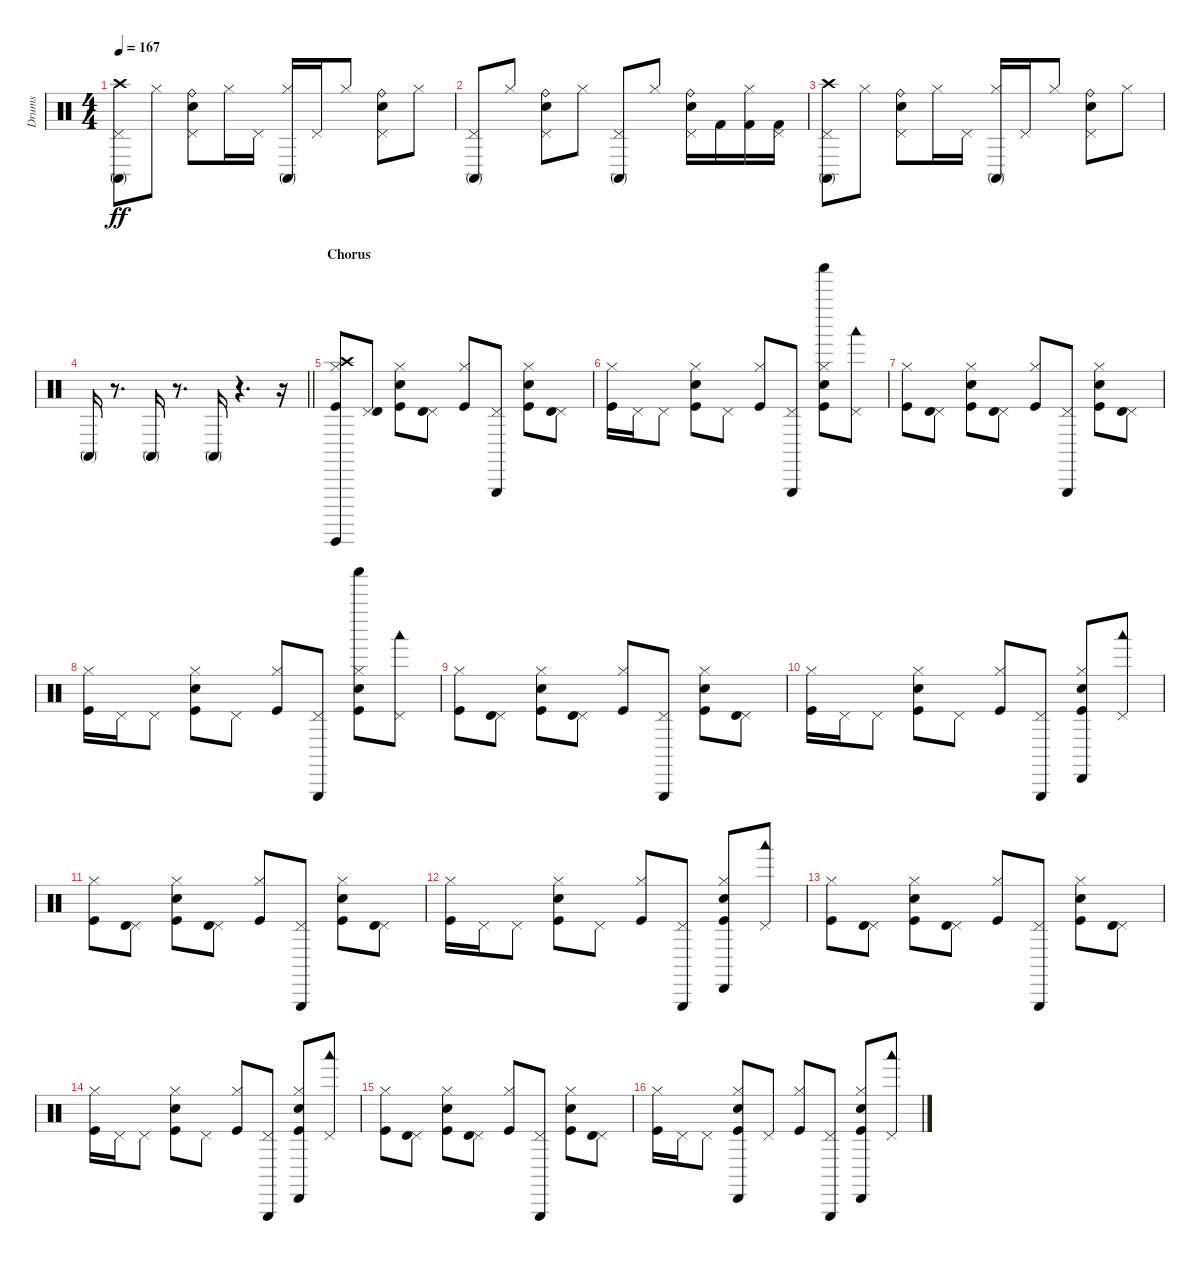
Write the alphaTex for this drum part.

\track ("Drums" "Drums") {instrument percussion}
\staff {score}
\articulation defaults
\ts (4 4)
\tempo 167
\clef neutral
\ks c
("Pedal Hi-Hat (hit)" "Conga high (mute)" "Crash high (hit)").8{dy ff} "Hi-Hat (closed)".8 ("Ride (bell)" "Pedal Hi-Hat (hit)" "Snare (hit) 2").8 "Hi-Hat (closed)".16 "Pedal Hi-Hat (hit)".16 ("Hi-Hat (closed)" "Conga high (mute)").16 "Pedal Hi-Hat (hit)".16 "Hi-Hat (closed)".8 ("Ride (bell)" "Pedal Hi-Hat (hit)" "Snare (hit) 2").8 "Hi-Hat (closed)".8 |
("Pedal Hi-Hat (hit)" "Conga high (mute)").8 "Hi-Hat (closed)".8 ("Ride (bell)" "Pedal Hi-Hat (hit)" "Snare (hit) 2").8 "Hi-Hat (closed)".8 ("Pedal Hi-Hat (hit)" "Conga high (mute)").8 "Hi-Hat (closed)".8 ("Ride (bell)" "Pedal Hi-Hat (hit)" "Snare (hit) 2").16 "Kick (hit) 2".16 ("Kick (hit) 2" "Hi-Hat (closed)").16 ("Kick (hit) 2" "Pedal Hi-Hat (hit)").16 |
("Pedal Hi-Hat (hit)" "Conga high (mute)" "Crash high (hit)").8 "Hi-Hat (closed)".8 ("Ride (bell)" "Pedal Hi-Hat (hit)" "Snare (hit) 2").8 "Hi-Hat (closed)".16 "Pedal Hi-Hat (hit)".16 ("Hi-Hat (closed)" "Conga high (mute)").16 "Pedal Hi-Hat (hit)".16 "Hi-Hat (closed)".8 ("Ride (bell)" "Pedal Hi-Hat (hit)" "Snare (hit) 2").8 "Hi-Hat (closed)".8 |
\barLineRight lightlight "Conga high (mute)".16
r.8{d} "Conga high (mute)".16 r.8{d} "Conga high (mute)".16 r.4{d} r.16 |
\section ("" "Chorus")
("Kick (hit)" "Hi-Hat (closed)" "Crash high (hit)" "Guiro (hit)").8 ("Pedal Hi-Hat (hit)" "Timbale high (hit)").8 ("Kick (hit)" "Hi-Hat (closed)" "Snare (hit) 2").8 ("Pedal Hi-Hat (hit)" "Timbale high (hit)").8 ("Kick (hit)" "Hi-Hat (closed)").8 ("Pedal Hi-Hat (hit)" "Triangle (hit)").8 ("Kick (hit)" "Hi-Hat (closed)" "Snare (hit) 2").8 ("Pedal Hi-Hat (hit)" "Timbale high (hit)").8 |
("Kick (hit)" "Hi-Hat (closed)").16 "Pedal Hi-Hat (hit)".16 "Pedal Hi-Hat (hit)".8 ("Kick (hit)" "Hi-Hat (closed)" "Snare (hit) 2").8 "Pedal Hi-Hat (hit)".8 ("Kick (hit)" "Hi-Hat (closed)").8 ("Pedal Hi-Hat (hit)" "Triangle (hit)").8 ("Kick (hit)" "Hi-Hat (closed)" "Snare (hit) 2" "Shaker (hit)").8 ("Pedal Hi-Hat (hit)" "Woodblock low (hit)").8 |
("Kick (hit)" "Hi-Hat (closed)").8 ("Pedal Hi-Hat (hit)" "Timbale high (hit)").8 ("Kick (hit)" "Hi-Hat (closed)" "Snare (hit) 2").8 ("Pedal Hi-Hat (hit)" "Timbale high (hit)").8 ("Kick (hit)" "Hi-Hat (closed)").8 ("Pedal Hi-Hat (hit)" "Triangle (hit)").8 ("Kick (hit)" "Hi-Hat (closed)" "Snare (hit) 2").8 ("Pedal Hi-Hat (hit)" "Timbale high (hit)").8 |
("Kick (hit)" "Hi-Hat (closed)").16 "Pedal Hi-Hat (hit)".16 "Pedal Hi-Hat (hit)".8 ("Kick (hit)" "Hi-Hat (closed)" "Snare (hit) 2").8 "Pedal Hi-Hat (hit)".8 ("Kick (hit)" "Hi-Hat (closed)").8 ("Pedal Hi-Hat (hit)" "Triangle (hit)").8 ("Kick (hit)" "Hi-Hat (closed)" "Snare (hit) 2" "Shaker (hit)").8 ("Pedal Hi-Hat (hit)" "Woodblock low (hit)").8 |
("Kick (hit)" "Hi-Hat (closed)").8 ("Pedal Hi-Hat (hit)" "Timbale high (hit)").8 ("Kick (hit)" "Hi-Hat (closed)" "Snare (hit) 2").8 ("Pedal Hi-Hat (hit)" "Timbale high (hit)").8 ("Kick (hit)" "Hi-Hat (closed)").8 ("Pedal Hi-Hat (hit)" "Triangle (hit)").8 ("Kick (hit)" "Hi-Hat (closed)" "Snare (hit) 2").8 ("Pedal Hi-Hat (hit)" "Timbale high (hit)").8 |
("Kick (hit)" "Hi-Hat (closed)").16 "Pedal Hi-Hat (hit)".16 "Pedal Hi-Hat (hit)".8 ("Kick (hit)" "Hi-Hat (closed)" "Snare (hit) 2").8 "Pedal Hi-Hat (hit)".8 ("Kick (hit)" "Hi-Hat (closed)").8 ("Pedal Hi-Hat (hit)" "Triangle (hit)").8 ("Kick (hit)" "Hi-Hat (closed)" "Cabasa (hit)" "Snare (hit) 2").8 ("Pedal Hi-Hat (hit)" "Woodblock low (hit)").8 |
("Kick (hit)" "Hi-Hat (closed)").8 ("Pedal Hi-Hat (hit)" "Timbale high (hit)").8 ("Kick (hit)" "Hi-Hat (closed)" "Snare (hit) 2").8 ("Pedal Hi-Hat (hit)" "Timbale high (hit)").8 ("Kick (hit)" "Hi-Hat (closed)").8 ("Pedal Hi-Hat (hit)" "Triangle (hit)").8 ("Kick (hit)" "Hi-Hat (closed)" "Snare (hit) 2").8 ("Pedal Hi-Hat (hit)" "Timbale high (hit)").8 |
("Kick (hit)" "Hi-Hat (closed)").16 "Pedal Hi-Hat (hit)".16 "Pedal Hi-Hat (hit)".8 ("Kick (hit)" "Hi-Hat (closed)" "Snare (hit) 2").8 "Pedal Hi-Hat (hit)".8 ("Kick (hit)" "Hi-Hat (closed)").8 ("Pedal Hi-Hat (hit)" "Triangle (hit)").8 ("Kick (hit)" "Hi-Hat (closed)" "Cabasa (hit)" "Snare (hit) 2").8 ("Pedal Hi-Hat (hit)" "Woodblock low (hit)").8 |
("Kick (hit)" "Hi-Hat (closed)").8 ("Pedal Hi-Hat (hit)" "Timbale high (hit)").8 ("Kick (hit)" "Hi-Hat (closed)" "Snare (hit) 2").8 ("Pedal Hi-Hat (hit)" "Timbale high (hit)").8 ("Kick (hit)" "Hi-Hat (closed)").8 ("Pedal Hi-Hat (hit)" "Triangle (hit)").8 ("Kick (hit)" "Hi-Hat (closed)" "Snare (hit) 2").8 ("Pedal Hi-Hat (hit)" "Timbale high (hit)").8 |
("Kick (hit)" "Hi-Hat (closed)").16 "Pedal Hi-Hat (hit)".16 "Pedal Hi-Hat (hit)".8 ("Kick (hit)" "Hi-Hat (closed)" "Snare (hit) 2").8 "Pedal Hi-Hat (hit)".8 ("Kick (hit)" "Hi-Hat (closed)").8 ("Pedal Hi-Hat (hit)" "Triangle (hit)").8 ("Kick (hit)" "Hi-Hat (closed)" "Cabasa (hit)" "Snare (hit) 2").8 ("Pedal Hi-Hat (hit)" "Woodblock low (hit)").8 |
("Kick (hit)" "Hi-Hat (closed)").8 ("Pedal Hi-Hat (hit)" "Timbale high (hit)").8 ("Kick (hit)" "Hi-Hat (closed)" "Snare (hit) 2").8 ("Pedal Hi-Hat (hit)" "Timbale high (hit)").8 ("Kick (hit)" "Hi-Hat (closed)").8 ("Pedal Hi-Hat (hit)" "Triangle (hit)").8 ("Kick (hit)" "Hi-Hat (closed)" "Snare (hit) 2").8 ("Pedal Hi-Hat (hit)" "Timbale high (hit)").8 |
("Kick (hit)" "Hi-Hat (closed)").16 "Pedal Hi-Hat (hit)".16 "Pedal Hi-Hat (hit)".8 ("Kick (hit)" "Hi-Hat (closed)" "Cabasa (hit)" "Snare (hit) 2").8 "Pedal Hi-Hat (hit)".8 ("Kick (hit)" "Hi-Hat (closed)").8 ("Pedal Hi-Hat (hit)" "Triangle (hit)").8 ("Kick (hit)" "Hi-Hat (closed)" "Cabasa (hit)" "Snare (hit) 2").8 ("Pedal Hi-Hat (hit)" "Woodblock low (hit)").8
